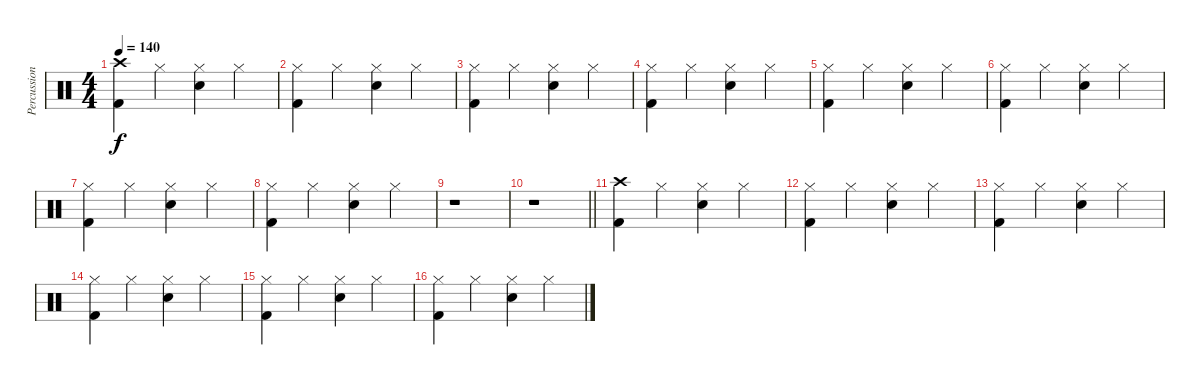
\track ("Percussions" "Percussion") {instrument percussion}
\staff {score}
\articulation defaults
\ts (4 4)
\tempo 140
\clef neutral
\ks c
("Crash high (hit)" "Kick (hit) 2").4{dy f} "Hi-Hat (closed)".4 ("Hi-Hat (closed)" "Electric Snare (hit)").4 "Hi-Hat (closed)".4 |
("Hi-Hat (closed)" "Kick (hit) 2").4 "Hi-Hat (closed)".4 ("Hi-Hat (closed)" "Electric Snare (hit)").4 "Hi-Hat (closed)".4 |
("Hi-Hat (closed)" "Kick (hit) 2").4 "Hi-Hat (closed)".4 ("Hi-Hat (closed)" "Electric Snare (hit)").4 "Hi-Hat (closed)".4 |
("Hi-Hat (closed)" "Kick (hit) 2").4 "Hi-Hat (closed)".4 ("Hi-Hat (closed)" "Electric Snare (hit)").4 "Hi-Hat (closed)".4 |
("Hi-Hat (closed)" "Kick (hit) 2").4 "Hi-Hat (closed)".4 ("Hi-Hat (closed)" "Electric Snare (hit)").4 "Hi-Hat (closed)".4 |
("Hi-Hat (closed)" "Kick (hit) 2").4 "Hi-Hat (closed)".4 ("Hi-Hat (closed)" "Electric Snare (hit)").4 "Hi-Hat (closed)".4 |
("Hi-Hat (closed)" "Kick (hit) 2").4 "Hi-Hat (closed)".4 ("Hi-Hat (closed)" "Electric Snare (hit)").4 "Hi-Hat (closed)".4 |
("Hi-Hat (closed)" "Kick (hit) 2").4 "Hi-Hat (closed)".4 ("Hi-Hat (closed)" "Electric Snare (hit)").4 "Hi-Hat (closed)".4 |
r.1 |
\barLineRight lightlight
r.1 |
("Crash high (hit)" "Kick (hit) 2").4 "Hi-Hat (closed)".4 ("Hi-Hat (closed)" "Electric Snare (hit)").4 "Hi-Hat (closed)".4 |
("Hi-Hat (closed)" "Kick (hit) 2").4 "Hi-Hat (closed)".4 ("Hi-Hat (closed)" "Electric Snare (hit)").4 "Hi-Hat (closed)".4 |
("Hi-Hat (closed)" "Kick (hit) 2").4 "Hi-Hat (closed)".4 ("Hi-Hat (closed)" "Electric Snare (hit)").4 "Hi-Hat (closed)".4 |
("Hi-Hat (closed)" "Kick (hit) 2").4 "Hi-Hat (closed)".4 ("Hi-Hat (closed)" "Electric Snare (hit)").4 "Hi-Hat (closed)".4 |
("Hi-Hat (closed)" "Kick (hit) 2").4 "Hi-Hat (closed)".4 ("Hi-Hat (closed)" "Electric Snare (hit)").4 "Hi-Hat (closed)".4 |
("Hi-Hat (closed)" "Kick (hit) 2").4 "Hi-Hat (closed)".4 ("Hi-Hat (closed)" "Electric Snare (hit)").4 "Hi-Hat (closed)".4
